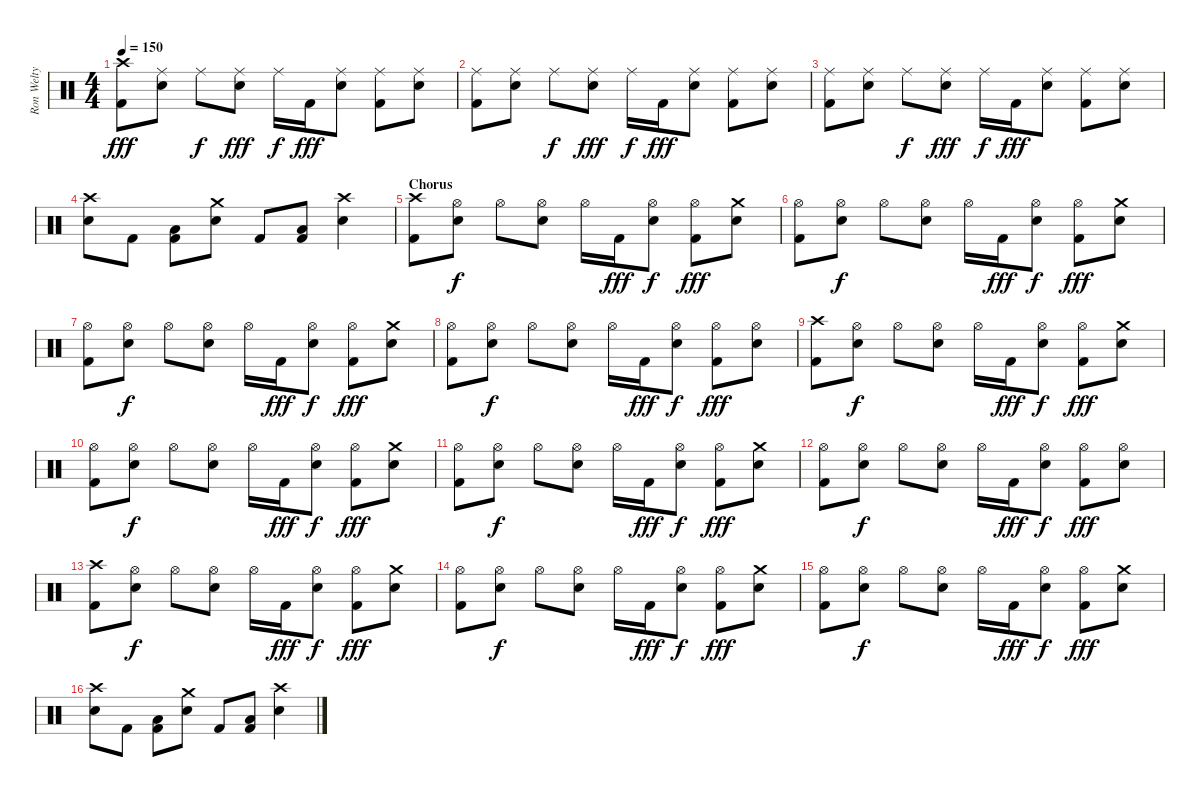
\track ("Ron Welty" "Ron Welty") {instrument percussion}
\staff {score}
\articulation defaults
\ts (4 4)
\tempo 150
\clef neutral
\ks c
("Crash high (hit)" "Kick (hit) 2").8{dy fff} ("Ride (middle)" "Snare (hit) 2").8 "Ride (middle)".8{dy f} ("Ride (middle)" "Snare (hit) 2").8{dy fff} "Ride (middle)".16{dy f} "Kick (hit) 2".16{dy fff} ("Ride (middle)" "Snare (hit) 2").8 ("Ride (middle)" "Kick (hit) 2").8 ("Ride (middle)" "Snare (hit) 2").8 |
("Ride (middle)" "Kick (hit) 2").8 ("Ride (middle)" "Snare (hit) 2").8 "Ride (middle)".8{dy f} ("Ride (middle)" "Snare (hit) 2").8{dy fff} "Ride (middle)".16{dy f} "Kick (hit) 2".16{dy fff} ("Ride (middle)" "Snare (hit) 2").8 ("Ride (middle)" "Kick (hit) 2").8 ("Ride (middle)" "Snare (hit) 2").8 |
("Ride (middle)" "Kick (hit) 2").8 ("Ride (middle)" "Snare (hit) 2").8 "Ride (middle)".8{dy f} ("Ride (middle)" "Snare (hit) 2").8{dy fff} "Ride (middle)".16{dy f} "Kick (hit) 2".16{dy fff} ("Ride (middle)" "Snare (hit) 2").8 ("Ride (middle)" "Kick (hit) 2").8 ("Ride (middle)" "Snare (hit) 2").8 |
("Crash high (hit)" "Snare (hit) 2").8 "Kick (hit) 2".8 ("Low Tom (hit)" "Kick (hit) 2").8 ("Crash medium (hit)" "Snare (hit) 2").8 "Kick (hit) 2".8 ("Low Floor Tom (hit)" "Kick (hit) 2").8 ("Crash high (hit)" "Snare (hit) 2").4 |
\section ("" "Chorus")
("Crash high (hit)" "Kick (hit) 2").8 ("Hi-Hat (open)" "Snare (hit) 2").8{dy f} "Hi-Hat (open)".8 ("Hi-Hat (open)" "Snare (hit) 2").8 "Hi-Hat (open)".16 "Kick (hit) 2".16{dy fff} ("Hi-Hat (open)" "Snare (hit) 2").8{dy f} ("Hi-Hat (open)" "Kick (hit) 2").8{dy fff} ("Crash medium (hit)" "Snare (hit) 2").8 |
("Hi-Hat (open)" "Kick (hit) 2").8 ("Hi-Hat (open)" "Snare (hit) 2").8{dy f} "Hi-Hat (open)".8 ("Hi-Hat (open)" "Snare (hit) 2").8 "Hi-Hat (open)".16 "Kick (hit) 2".16{dy fff} ("Hi-Hat (open)" "Snare (hit) 2").8{dy f} ("Hi-Hat (open)" "Kick (hit) 2").8{dy fff} ("Crash medium (hit)" "Snare (hit) 2").8 |
("Hi-Hat (open)" "Kick (hit) 2").8 ("Hi-Hat (open)" "Snare (hit) 2").8{dy f} "Hi-Hat (open)".8 ("Hi-Hat (open)" "Snare (hit) 2").8 "Hi-Hat (open)".16 "Kick (hit) 2".16{dy fff} ("Hi-Hat (open)" "Snare (hit) 2").8{dy f} ("Hi-Hat (open)" "Kick (hit) 2").8{dy fff} ("Crash medium (hit)" "Snare (hit) 2").8 |
("Hi-Hat (open)" "Kick (hit) 2").8 ("Hi-Hat (open)" "Snare (hit) 2").8{dy f} "Hi-Hat (open)".8 ("Hi-Hat (open)" "Snare (hit) 2").8 "Hi-Hat (open)".16 "Kick (hit) 2".16{dy fff} ("Hi-Hat (open)" "Snare (hit) 2").8{dy f} ("Hi-Hat (open)" "Kick (hit) 2").8{dy fff} ("Hi-Hat (open)" "Snare (hit) 2").8 |
("Crash high (hit)" "Kick (hit) 2").8 ("Hi-Hat (open)" "Snare (hit) 2").8{dy f} "Hi-Hat (open)".8 ("Hi-Hat (open)" "Snare (hit) 2").8 "Hi-Hat (open)".16 "Kick (hit) 2".16{dy fff} ("Hi-Hat (open)" "Snare (hit) 2").8{dy f} ("Hi-Hat (open)" "Kick (hit) 2").8{dy fff} ("Crash medium (hit)" "Snare (hit) 2").8 |
("Hi-Hat (open)" "Kick (hit) 2").8 ("Hi-Hat (open)" "Snare (hit) 2").8{dy f} "Hi-Hat (open)".8 ("Hi-Hat (open)" "Snare (hit) 2").8 "Hi-Hat (open)".16 "Kick (hit) 2".16{dy fff} ("Hi-Hat (open)" "Snare (hit) 2").8{dy f} ("Hi-Hat (open)" "Kick (hit) 2").8{dy fff} ("Crash medium (hit)" "Snare (hit) 2").8 |
("Hi-Hat (open)" "Kick (hit) 2").8 ("Hi-Hat (open)" "Snare (hit) 2").8{dy f} "Hi-Hat (open)".8 ("Hi-Hat (open)" "Snare (hit) 2").8 "Hi-Hat (open)".16 "Kick (hit) 2".16{dy fff} ("Hi-Hat (open)" "Snare (hit) 2").8{dy f} ("Hi-Hat (open)" "Kick (hit) 2").8{dy fff} ("Crash medium (hit)" "Snare (hit) 2").8 |
("Hi-Hat (open)" "Kick (hit) 2").8 ("Hi-Hat (open)" "Snare (hit) 2").8{dy f} "Hi-Hat (open)".8 ("Hi-Hat (open)" "Snare (hit) 2").8 "Hi-Hat (open)".16 "Kick (hit) 2".16{dy fff} ("Hi-Hat (open)" "Snare (hit) 2").8{dy f} ("Hi-Hat (open)" "Kick (hit) 2").8{dy fff} ("Hi-Hat (open)" "Snare (hit) 2").8 |
("Crash high (hit)" "Kick (hit) 2").8 ("Hi-Hat (open)" "Snare (hit) 2").8{dy f} "Hi-Hat (open)".8 ("Hi-Hat (open)" "Snare (hit) 2").8 "Hi-Hat (open)".16 "Kick (hit) 2".16{dy fff} ("Hi-Hat (open)" "Snare (hit) 2").8{dy f} ("Hi-Hat (open)" "Kick (hit) 2").8{dy fff} ("Crash medium (hit)" "Snare (hit) 2").8 |
("Hi-Hat (open)" "Kick (hit) 2").8 ("Hi-Hat (open)" "Snare (hit) 2").8{dy f} "Hi-Hat (open)".8 ("Hi-Hat (open)" "Snare (hit) 2").8 "Hi-Hat (open)".16 "Kick (hit) 2".16{dy fff} ("Hi-Hat (open)" "Snare (hit) 2").8{dy f} ("Hi-Hat (open)" "Kick (hit) 2").8{dy fff} ("Crash medium (hit)" "Snare (hit) 2").8 |
("Hi-Hat (open)" "Kick (hit) 2").8 ("Hi-Hat (open)" "Snare (hit) 2").8{dy f} "Hi-Hat (open)".8 ("Hi-Hat (open)" "Snare (hit) 2").8 "Hi-Hat (open)".16 "Kick (hit) 2".16{dy fff} ("Hi-Hat (open)" "Snare (hit) 2").8{dy f} ("Hi-Hat (open)" "Kick (hit) 2").8{dy fff} ("Crash medium (hit)" "Snare (hit) 2").8 |
("Crash high (hit)" "Snare (hit) 2").8 "Kick (hit) 2".8 ("Low Tom (hit)" "Kick (hit) 2").8 ("Crash medium (hit)" "Snare (hit) 2").8 "Kick (hit) 2".8 ("Low Floor Tom (hit)" "Kick (hit) 2").8 ("Crash high (hit)" "Snare (hit) 2").4
